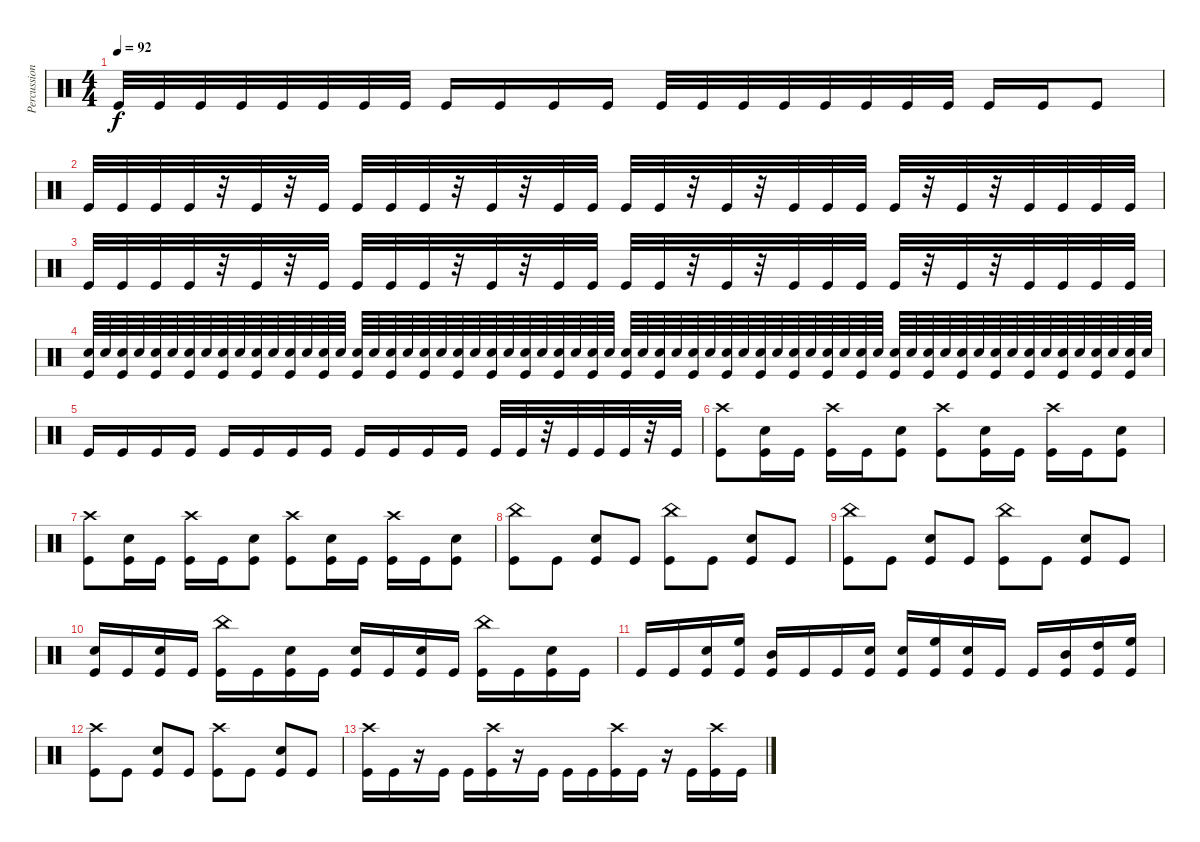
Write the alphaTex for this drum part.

\track ("Percussion" "Percussion") {instrument percussion}
\staff {score}
\articulation defaults
\ts (4 4)
\tempo 92
\clef neutral
\ks c "Kick (hit)".32{dy f} "Kick (hit)".32 "Kick (hit)".32 "Kick (hit)".32 "Kick (hit)".32 "Kick (hit)".32 "Kick (hit)".32 "Kick (hit)".32 "Kick (hit)".16 "Kick (hit)".16 "Kick (hit)".16 "Kick (hit)".16 "Kick (hit)".32 "Kick (hit)".32 "Kick (hit)".32 "Kick (hit)".32 "Kick (hit)".32 "Kick (hit)".32 "Kick (hit)".32 "Kick (hit)".32 "Kick (hit)".16 "Kick (hit)".16 "Kick (hit)".8
|
"Kick (hit)".32 "Kick (hit)".32 "Kick (hit)".32 "Kick (hit)".32 r.32 "Kick (hit)".32 r.32 "Kick (hit)".32 "Kick (hit)".32 "Kick (hit)".32 "Kick (hit)".32 r.32 "Kick (hit)".32 r.32 "Kick (hit)".32 "Kick (hit)".32 "Kick (hit)".32 "Kick (hit)".32 r.32 "Kick (hit)".32 r.32 "Kick (hit)".32 "Kick (hit)".32 "Kick (hit)".32 "Kick (hit)".32 r.32 "Kick (hit)".32 r.32 "Kick (hit)".32 "Kick (hit)".32 "Kick (hit)".32 "Kick (hit)".32 |
"Kick (hit)".32 "Kick (hit)".32 "Kick (hit)".32 "Kick (hit)".32 r.32 "Kick (hit)".32 r.32 "Kick (hit)".32 "Kick (hit)".32 "Kick (hit)".32 "Kick (hit)".32 r.32 "Kick (hit)".32 r.32 "Kick (hit)".32 "Kick (hit)".32 "Kick (hit)".32 "Kick (hit)".32 r.32 "Kick (hit)".32 r.32 "Kick (hit)".32 "Kick (hit)".32 "Kick (hit)".32 "Kick (hit)".32 r.32 "Kick (hit)".32 r.32 "Kick (hit)".32 "Kick (hit)".32 "Kick (hit)".32 "Kick (hit)".32 |
("Snare (hit) 2" "Kick (hit)").64 "Snare (hit) 2".64 ("Snare (hit) 2" "Kick (hit)").64 "Snare (hit) 2".64 ("Snare (hit) 2" "Kick (hit)").64 "Snare (hit) 2".64 ("Snare (hit) 2" "Kick (hit)").64 "Snare (hit) 2".64 ("Snare (hit) 2" "Kick (hit)").64 "Snare (hit) 2".64 ("Snare (hit) 2" "Kick (hit)").64 "Snare (hit) 2".64 ("Snare (hit) 2" "Kick (hit)").64 "Snare (hit) 2".64 ("Snare (hit) 2" "Kick (hit)").64 "Snare (hit) 2".64 ("Snare (hit) 2" "Kick (hit)").64 "Snare (hit) 2".64 ("Snare (hit) 2" "Kick (hit)").64 "Snare (hit) 2".64 ("Snare (hit) 2" "Kick (hit)").64 "Snare (hit) 2".64 ("Snare (hit) 2" "Kick (hit)").64 "Snare (hit) 2".64 ("Snare (hit) 2" "Kick (hit)").64 "Snare (hit) 2".64 ("Snare (hit) 2" "Kick (hit)").64 "Snare (hit) 2".64 ("Snare (hit) 2" "Kick (hit)").64 "Snare (hit) 2".64 ("Snare (hit) 2" "Kick (hit)").64 "Snare (hit) 2".64 ("Snare (hit) 2" "Kick (hit)").64 "Snare (hit) 2".64 ("Snare (hit) 2" "Kick (hit)").64 "Snare (hit) 2".64 ("Snare (hit) 2" "Kick (hit)").64 "Snare (hit) 2".64 ("Snare (hit) 2" "Kick (hit)").64 "Snare (hit) 2".64 ("Snare (hit) 2" "Kick (hit)").64 "Snare (hit) 2".64 ("Snare (hit) 2" "Kick (hit)").64 "Snare (hit) 2".64 ("Snare (hit) 2" "Kick (hit)").64 "Snare (hit) 2".64 ("Snare (hit) 2" "Kick (hit)").64 "Snare (hit) 2".64 ("Snare (hit) 2" "Kick (hit)").64 "Snare (hit) 2".64 ("Snare (hit) 2" "Kick (hit)").64 "Snare (hit) 2".64 ("Snare (hit) 2" "Kick (hit)").64 "Snare (hit) 2".64 ("Snare (hit) 2" "Kick (hit)").64 "Snare (hit) 2".64 ("Snare (hit) 2" "Kick (hit)").64 "Snare (hit) 2".64 ("Snare (hit) 2" "Kick (hit)").64 "Snare (hit) 2".64 ("Snare (hit) 2" "Kick (hit)").64 "Snare (hit) 2".64 ("Snare (hit) 2" "Kick (hit)").64 "Snare (hit) 2".64 |
"Kick (hit)".16 "Kick (hit)".16 "Kick (hit)".16 "Kick (hit)".16 "Kick (hit)".16 "Kick (hit)".16 "Kick (hit)".16 "Kick (hit)".16 "Kick (hit)".16 "Kick (hit)".16 "Kick (hit)".16 "Kick (hit)".16 "Kick (hit)".32 "Kick (hit)".32 r.32 "Kick (hit)".32 "Kick (hit)".32 "Kick (hit)".32 r.32 "Kick (hit)".32 |
("Crash high (hit)" "Kick (hit)").8 ("Snare (hit) 2" "Kick (hit)").16 "Kick (hit)".16 ("Crash high (hit)" "Kick (hit)").16 "Kick (hit)".16 ("Snare (hit) 2" "Kick (hit)").8 ("Crash high (hit)" "Kick (hit)").8 ("Snare (hit) 2" "Kick (hit)").16 "Kick (hit)".16 ("Crash high (hit)" "Kick (hit)").16 "Kick (hit)".16 ("Snare (hit) 2" "Kick (hit)").8 |
("Crash high (hit)" "Kick (hit)").8 ("Snare (hit) 2" "Kick (hit)").16 "Kick (hit)".16 ("Crash high (hit)" "Kick (hit)").16 "Kick (hit)".16 ("Snare (hit) 2" "Kick (hit)").8 ("Crash high (hit)" "Kick (hit)").8 ("Snare (hit) 2" "Kick (hit)").16 "Kick (hit)".16 ("Crash high (hit)" "Kick (hit)").16 "Kick (hit)".16 ("Snare (hit) 2" "Kick (hit)").8 |
("China (hit)" "Kick (hit)").8 "Kick (hit)".8 ("Snare (hit) 2" "Kick (hit)").8 "Kick (hit)".8 ("China (hit)" "Kick (hit)").8 "Kick (hit)".8 ("Snare (hit) 2" "Kick (hit)").8 "Kick (hit)".8 |
("China (hit)" "Kick (hit)").8 "Kick (hit)".8 ("Snare (hit) 2" "Kick (hit)").8 "Kick (hit)".8 ("China (hit)" "Kick (hit)").8 "Kick (hit)".8 ("Snare (hit) 2" "Kick (hit)").8 "Kick (hit)".8 |
("Snare (hit) 2" "Kick (hit)").16 "Kick (hit)".16 ("Snare (hit) 2" "Kick (hit)").16 "Kick (hit)".16 ("China (hit)" "Kick (hit)").16 "Kick (hit)".16 ("Snare (hit) 2" "Kick (hit)").16 "Kick (hit)".16 ("Snare (hit) 2" "Kick (hit)").16 "Kick (hit)".16 ("Snare (hit) 2" "Kick (hit)").16 "Kick (hit)".16 ("China (hit)" "Kick (hit)").16 "Kick (hit)".16 ("Snare (hit) 2" "Kick (hit)").16 "Kick (hit)".16 |
"Kick (hit)".16 "Kick (hit)".16 ("Snare (hit) 2" "Kick (hit)").16 ("High Floor Tom (hit)" "Kick (hit)").16 ("Mid Tom (hit)" "Kick (hit)").16 "Kick (hit)".16 "Kick (hit)".16 ("Snare (hit) 2" "Kick (hit)").16 ("Snare (hit) 2" "Kick (hit)").16 ("High Floor Tom (hit)" "Kick (hit)").16 ("Snare (hit) 2" "Kick (hit)").16 "Kick (hit)".16 "Kick (hit)".16 ("Mid Tom (hit)" "Kick (hit)").16 ("High Tom (hit)" "Kick (hit)").16 ("High Floor Tom (hit)" "Kick (hit)").16 |
("Crash high (hit)" "Kick (hit)").8 "Kick (hit)".8 ("Snare (hit) 2" "Kick (hit)").8 "Kick (hit)".8 ("Crash high (hit)" "Kick (hit)").8 "Kick (hit)".8 ("Snare (hit) 2" "Kick (hit)").8 "Kick (hit)".8 |
("Crash high (hit)" "Kick (hit)").16 "Kick (hit)".16 r.16 "Kick (hit)".16 "Kick (hit)".16 ("Crash high (hit)" "Kick (hit)").16 r.16 "Kick (hit)".16 "Kick (hit)".16 "Kick (hit)".16 ("Crash high (hit)" "Kick (hit)").16 "Kick (hit)".16 r.16 "Kick (hit)".16 ("Crash high (hit)" "Kick (hit)").16 "Kick (hit)".16
